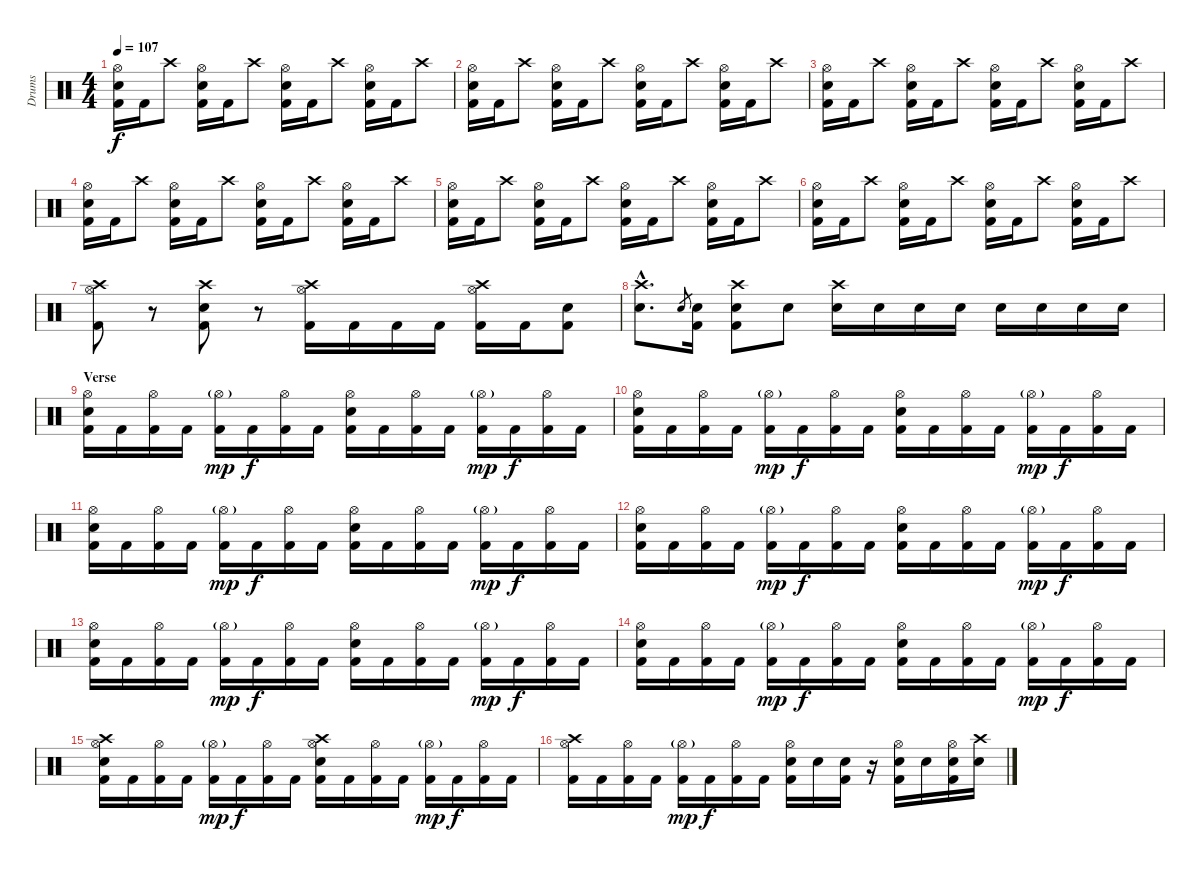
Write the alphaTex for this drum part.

\track ("Drums" "Drums") {instrument percussion}
\staff {score}
\articulation defaults
\ts (4 4)
\tempo 107
\clef neutral
\ks c
("Hi-Hat (open)" "Snare (hit) 2" "Kick (hit) 2").16{dy f} "Kick (hit) 2".16 "Crash high (hit)".8 ("Hi-Hat (open)" "Snare (hit) 2" "Kick (hit) 2").16 "Kick (hit) 2".16 "Crash high (hit)".8 ("Hi-Hat (open)" "Snare (hit) 2" "Kick (hit) 2").16 "Kick (hit) 2".16 "Crash high (hit)".8 ("Hi-Hat (open)" "Snare (hit) 2" "Kick (hit) 2").16 "Kick (hit) 2".16 "Crash high (hit)".8 |
("Hi-Hat (open)" "Snare (hit) 2" "Kick (hit) 2").16 "Kick (hit) 2".16 "Crash high (hit)".8 ("Hi-Hat (open)" "Snare (hit) 2" "Kick (hit) 2").16 "Kick (hit) 2".16 "Crash high (hit)".8 ("Hi-Hat (open)" "Snare (hit) 2" "Kick (hit) 2").16 "Kick (hit) 2".16 "Crash high (hit)".8 ("Hi-Hat (open)" "Snare (hit) 2" "Kick (hit) 2").16 "Kick (hit) 2".16 "Crash high (hit)".8 |
("Hi-Hat (open)" "Snare (hit) 2" "Kick (hit) 2").16 "Kick (hit) 2".16 "Crash high (hit)".8 ("Hi-Hat (open)" "Snare (hit) 2" "Kick (hit) 2").16 "Kick (hit) 2".16 "Crash high (hit)".8 ("Hi-Hat (open)" "Snare (hit) 2" "Kick (hit) 2").16 "Kick (hit) 2".16 "Crash high (hit)".8 ("Hi-Hat (open)" "Snare (hit) 2" "Kick (hit) 2").16 "Kick (hit) 2".16 "Crash high (hit)".8 |
("Hi-Hat (open)" "Snare (hit) 2" "Kick (hit) 2").16 "Kick (hit) 2".16 "Crash high (hit)".8 ("Hi-Hat (open)" "Snare (hit) 2" "Kick (hit) 2").16 "Kick (hit) 2".16 "Crash high (hit)".8 ("Hi-Hat (open)" "Snare (hit) 2" "Kick (hit) 2").16 "Kick (hit) 2".16 "Crash high (hit)".8 ("Hi-Hat (open)" "Snare (hit) 2" "Kick (hit) 2").16 "Kick (hit) 2".16 "Crash high (hit)".8 |
("Hi-Hat (open)" "Snare (hit) 2" "Kick (hit) 2").16 "Kick (hit) 2".16 "Crash high (hit)".8 ("Hi-Hat (open)" "Snare (hit) 2" "Kick (hit) 2").16 "Kick (hit) 2".16 "Crash high (hit)".8 ("Hi-Hat (open)" "Snare (hit) 2" "Kick (hit) 2").16 "Kick (hit) 2".16 "Crash high (hit)".8 ("Hi-Hat (open)" "Snare (hit) 2" "Kick (hit) 2").16 "Kick (hit) 2".16 "Crash high (hit)".8 |
("Hi-Hat (open)" "Snare (hit) 2" "Kick (hit) 2").16 "Kick (hit) 2".16 "Crash high (hit)".8 ("Hi-Hat (open)" "Snare (hit) 2" "Kick (hit) 2").16 "Kick (hit) 2".16 "Crash high (hit)".8 ("Hi-Hat (open)" "Snare (hit) 2" "Kick (hit) 2").16 "Kick (hit) 2".16 "Crash high (hit)".8 ("Hi-Hat (open)" "Snare (hit) 2" "Kick (hit) 2").16 "Kick (hit) 2".16 "Crash high (hit)".8 |
("Crash high (hit)" "Hi-Hat (open)" "Kick (hit) 2").8 r.8 ("Crash high (hit)" "Snare (hit) 2" "Kick (hit) 2").8 r.8 ("Crash high (hit)" "Hi-Hat (open)" "Kick (hit) 2").16 "Kick (hit) 2".16 "Kick (hit) 2".16 "Kick (hit) 2".16 ("Crash high (hit)" "Hi-Hat (open)" "Kick (hit) 2").16 "Kick (hit) 2".16 ("Snare (hit) 2" "Kick (hit) 2").8 |
("Crash high (hit)"{hac} "Snare (hit) 2"{hac}).8{d} "Snare (hit) 2".8{gr} ("Snare (hit) 2" "Kick (hit) 2").16 ("Crash high (hit)" "Snare (hit) 2" "Kick (hit) 2").8 "Snare (hit) 2".8 ("Crash high (hit)" "Snare (hit) 2").16 "Snare (hit) 2".16 "Snare (hit) 2".16 "Snare (hit) 2".16 "Snare (hit) 2".16 "Snare (hit) 2".16 "Snare (hit) 2".16 "Snare (hit) 2".16 |
\section ("" "Verse")
("Hi-Hat (open)" "Snare (hit) 2" "Kick (hit) 2").16 "Kick (hit) 2".16 ("Hi-Hat (open)" "Kick (hit) 2").16 "Kick (hit) 2".16 ("Hi-Hat (open)"{g} "Kick (hit) 2").16{dy mp} "Kick (hit) 2".16{dy f} ("Hi-Hat (open)" "Kick (hit) 2").16 "Kick (hit) 2".16 ("Hi-Hat (open)" "Snare (hit) 2" "Kick (hit) 2").16 "Kick (hit) 2".16 ("Hi-Hat (open)" "Kick (hit) 2").16 "Kick (hit) 2".16 ("Hi-Hat (open)"{g} "Kick (hit) 2").16{dy mp} "Kick (hit) 2".16{dy f} ("Hi-Hat (open)" "Kick (hit) 2").16 "Kick (hit) 2".16 |
("Hi-Hat (open)" "Snare (hit) 2" "Kick (hit) 2").16 "Kick (hit) 2".16 ("Hi-Hat (open)" "Kick (hit) 2").16 "Kick (hit) 2".16 ("Hi-Hat (open)"{g} "Kick (hit) 2").16{dy mp} "Kick (hit) 2".16{dy f} ("Hi-Hat (open)" "Kick (hit) 2").16 "Kick (hit) 2".16 ("Hi-Hat (open)" "Snare (hit) 2" "Kick (hit) 2").16 "Kick (hit) 2".16 ("Hi-Hat (open)" "Kick (hit) 2").16 "Kick (hit) 2".16 ("Hi-Hat (open)"{g} "Kick (hit) 2").16{dy mp} "Kick (hit) 2".16{dy f} ("Hi-Hat (open)" "Kick (hit) 2").16 "Kick (hit) 2".16 |
("Hi-Hat (open)" "Snare (hit) 2" "Kick (hit) 2").16 "Kick (hit) 2".16 ("Hi-Hat (open)" "Kick (hit) 2").16 "Kick (hit) 2".16 ("Hi-Hat (open)"{g} "Kick (hit) 2").16{dy mp} "Kick (hit) 2".16{dy f} ("Hi-Hat (open)" "Kick (hit) 2").16 "Kick (hit) 2".16 ("Hi-Hat (open)" "Snare (hit) 2" "Kick (hit) 2").16 "Kick (hit) 2".16 ("Hi-Hat (open)" "Kick (hit) 2").16 "Kick (hit) 2".16 ("Hi-Hat (open)"{g} "Kick (hit) 2").16{dy mp} "Kick (hit) 2".16{dy f} ("Hi-Hat (open)" "Kick (hit) 2").16 "Kick (hit) 2".16 |
("Hi-Hat (open)" "Snare (hit) 2" "Kick (hit) 2").16 "Kick (hit) 2".16 ("Hi-Hat (open)" "Kick (hit) 2").16 "Kick (hit) 2".16 ("Hi-Hat (open)"{g} "Kick (hit) 2").16{dy mp} "Kick (hit) 2".16{dy f} ("Hi-Hat (open)" "Kick (hit) 2").16 "Kick (hit) 2".16 ("Hi-Hat (open)" "Snare (hit) 2" "Kick (hit) 2").16 "Kick (hit) 2".16 ("Hi-Hat (open)" "Kick (hit) 2").16 "Kick (hit) 2".16 ("Hi-Hat (open)"{g} "Kick (hit) 2").16{dy mp} "Kick (hit) 2".16{dy f} ("Hi-Hat (open)" "Kick (hit) 2").16 "Kick (hit) 2".16 |
("Hi-Hat (open)" "Snare (hit) 2" "Kick (hit) 2").16 "Kick (hit) 2".16 ("Hi-Hat (open)" "Kick (hit) 2").16 "Kick (hit) 2".16 ("Hi-Hat (open)"{g} "Kick (hit) 2").16{dy mp} "Kick (hit) 2".16{dy f} ("Hi-Hat (open)" "Kick (hit) 2").16 "Kick (hit) 2".16 ("Hi-Hat (open)" "Snare (hit) 2" "Kick (hit) 2").16 "Kick (hit) 2".16 ("Hi-Hat (open)" "Kick (hit) 2").16 "Kick (hit) 2".16 ("Hi-Hat (open)"{g} "Kick (hit) 2").16{dy mp} "Kick (hit) 2".16{dy f} ("Hi-Hat (open)" "Kick (hit) 2").16 "Kick (hit) 2".16 |
("Hi-Hat (open)" "Snare (hit) 2" "Kick (hit) 2").16 "Kick (hit) 2".16 ("Hi-Hat (open)" "Kick (hit) 2").16 "Kick (hit) 2".16 ("Hi-Hat (open)"{g} "Kick (hit) 2").16{dy mp} "Kick (hit) 2".16{dy f} ("Hi-Hat (open)" "Kick (hit) 2").16 "Kick (hit) 2".16 ("Hi-Hat (open)" "Snare (hit) 2" "Kick (hit) 2").16 "Kick (hit) 2".16 ("Hi-Hat (open)" "Kick (hit) 2").16 "Kick (hit) 2".16 ("Hi-Hat (open)"{g} "Kick (hit) 2").16{dy mp} "Kick (hit) 2".16{dy f} ("Hi-Hat (open)" "Kick (hit) 2").16 "Kick (hit) 2".16 |
("Hi-Hat (open)" "Crash high (hit)" "Snare (hit) 2" "Kick (hit) 2").16 "Kick (hit) 2".16 ("Hi-Hat (open)" "Kick (hit) 2").16 "Kick (hit) 2".16 ("Hi-Hat (open)"{g} "Kick (hit) 2").16{dy mp} "Kick (hit) 2".16{dy f} ("Hi-Hat (open)" "Kick (hit) 2").16 "Kick (hit) 2".16 ("Hi-Hat (open)" "Crash high (hit)" "Snare (hit) 2" "Kick (hit) 2").16 "Kick (hit) 2".16 ("Hi-Hat (open)" "Kick (hit) 2").16 "Kick (hit) 2".16 ("Hi-Hat (open)"{g} "Kick (hit) 2").16{dy mp} "Kick (hit) 2".16{dy f} ("Hi-Hat (open)" "Kick (hit) 2").16 "Kick (hit) 2".16 |
("Hi-Hat (open)" "Crash high (hit)" "Kick (hit) 2").16 "Kick (hit) 2".16 ("Hi-Hat (open)" "Kick (hit) 2").16 "Kick (hit) 2".16 ("Hi-Hat (open)"{g} "Kick (hit) 2").16{dy mp} "Kick (hit) 2".16{dy f} ("Hi-Hat (open)" "Kick (hit) 2").16 "Kick (hit) 2".16 ("Hi-Hat (open)" "Snare (hit) 2" "Kick (hit) 2").16 "Snare (hit) 2".16 ("Snare (hit) 2" "Kick (hit) 2").16 r.16 ("Hi-Hat (open)" "Electric Snare (hit)" "Kick (hit) 2").16 "Electric Snare (hit)".16 ("Hi-Hat (open)" "Electric Snare (hit)" "Kick (hit) 2").16 ("Crash high (hit)" "Snare (hit) 2").16
